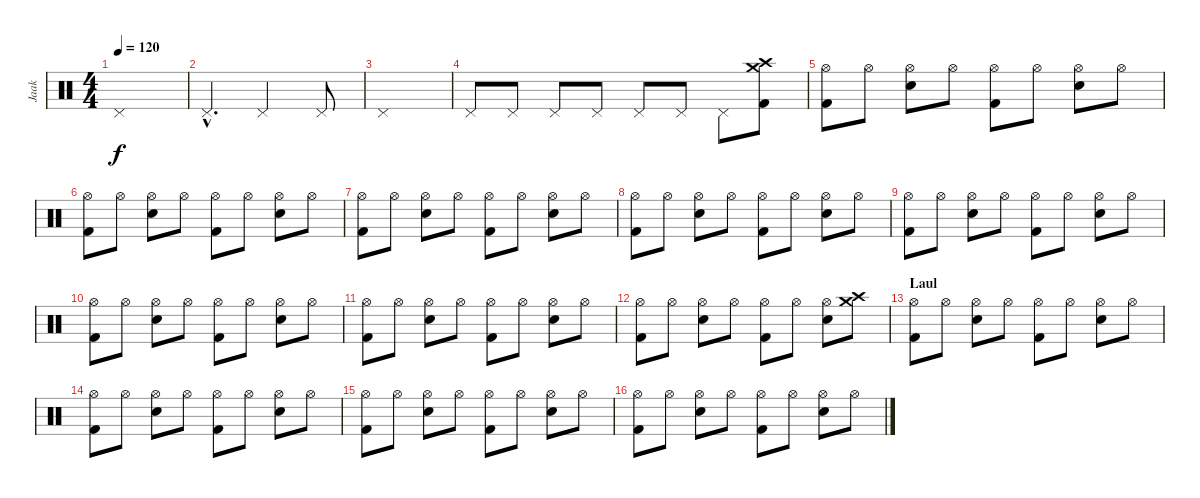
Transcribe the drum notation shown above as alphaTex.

\track ("Jaak" "Jaak") {instrument percussion}
\staff {score}
\articulation defaults
\ts (4 4)
\tempo 120
\clef neutral
\ks c "Pedal Hi-Hat (hit)".1{dy f}
|
"Pedal Hi-Hat (hit)"{hac}.4{d} "Pedal Hi-Hat (hit)".2 "Pedal Hi-Hat (hit)".8 |
"Pedal Hi-Hat (hit)".1 |
"Pedal Hi-Hat (hit)".8 "Pedal Hi-Hat (hit)".8 "Pedal Hi-Hat (hit)".8 "Pedal Hi-Hat (hit)".8 "Pedal Hi-Hat (hit)".8 "Pedal Hi-Hat (hit)".8 "Pedal Hi-Hat (hit)".8 ("Crash high (hit)" "Crash medium (hit)" "Kick (hit) 2").8 |
("Hi-Hat (open)" "Kick (hit) 2").8 "Hi-Hat (open)".8 ("Hi-Hat (open)" "Snare (hit) 2").8 "Hi-Hat (open)".8 ("Hi-Hat (open)" "Kick (hit) 2").8 "Hi-Hat (open)".8 ("Hi-Hat (open)" "Snare (hit) 2").8 "Hi-Hat (open)".8 |
("Hi-Hat (open)" "Kick (hit) 2").8 "Hi-Hat (open)".8 ("Hi-Hat (open)" "Snare (hit) 2").8 "Hi-Hat (open)".8 ("Hi-Hat (open)" "Kick (hit) 2").8 "Hi-Hat (open)".8 ("Hi-Hat (open)" "Snare (hit) 2").8 "Hi-Hat (open)".8 |
("Hi-Hat (open)" "Kick (hit) 2").8 "Hi-Hat (open)".8 ("Hi-Hat (open)" "Snare (hit) 2").8 "Hi-Hat (open)".8 ("Hi-Hat (open)" "Kick (hit) 2").8 "Hi-Hat (open)".8 ("Hi-Hat (open)" "Snare (hit) 2").8 "Hi-Hat (open)".8 |
("Hi-Hat (open)" "Kick (hit) 2").8 "Hi-Hat (open)".8 ("Hi-Hat (open)" "Snare (hit) 2").8 "Hi-Hat (open)".8 ("Hi-Hat (open)" "Kick (hit) 2").8 "Hi-Hat (open)".8 ("Hi-Hat (open)" "Snare (hit) 2").8 "Hi-Hat (open)".8 |
("Hi-Hat (open)" "Kick (hit) 2").8 "Hi-Hat (open)".8 ("Hi-Hat (open)" "Snare (hit) 2").8 "Hi-Hat (open)".8 ("Hi-Hat (open)" "Kick (hit) 2").8 "Hi-Hat (open)".8 ("Hi-Hat (open)" "Snare (hit) 2").8 "Hi-Hat (open)".8 |
("Hi-Hat (open)" "Kick (hit) 2").8 "Hi-Hat (open)".8 ("Hi-Hat (open)" "Snare (hit) 2").8 "Hi-Hat (open)".8 ("Hi-Hat (open)" "Kick (hit) 2").8 "Hi-Hat (open)".8 ("Hi-Hat (open)" "Snare (hit) 2").8 "Hi-Hat (open)".8 |
("Hi-Hat (open)" "Kick (hit) 2").8 "Hi-Hat (open)".8 ("Hi-Hat (open)" "Snare (hit) 2").8 "Hi-Hat (open)".8 ("Hi-Hat (open)" "Kick (hit) 2").8 "Hi-Hat (open)".8 ("Hi-Hat (open)" "Snare (hit) 2").8 "Hi-Hat (open)".8 |
("Hi-Hat (open)" "Kick (hit) 2").8 "Hi-Hat (open)".8 ("Hi-Hat (open)" "Snare (hit) 2").8 "Hi-Hat (open)".8 ("Hi-Hat (open)" "Kick (hit) 2").8 "Hi-Hat (open)".8 ("Hi-Hat (open)" "Snare (hit) 2").8 ("Crash high (hit)" "Crash medium (hit)").8 |
\section ("" "Laul")
("Hi-Hat (open)" "Kick (hit) 2").8 "Hi-Hat (open)".8 ("Hi-Hat (open)" "Snare (hit) 2").8 "Hi-Hat (open)".8 ("Hi-Hat (open)" "Kick (hit) 2").8 "Hi-Hat (open)".8 ("Hi-Hat (open)" "Snare (hit) 2").8 "Hi-Hat (open)".8 |
("Hi-Hat (open)" "Kick (hit) 2").8 "Hi-Hat (open)".8 ("Hi-Hat (open)" "Snare (hit) 2").8 "Hi-Hat (open)".8 ("Hi-Hat (open)" "Kick (hit) 2").8 "Hi-Hat (open)".8 ("Hi-Hat (open)" "Snare (hit) 2").8 "Hi-Hat (open)".8 |
("Hi-Hat (open)" "Kick (hit) 2").8 "Hi-Hat (open)".8 ("Hi-Hat (open)" "Snare (hit) 2").8 "Hi-Hat (open)".8 ("Hi-Hat (open)" "Kick (hit) 2").8 "Hi-Hat (open)".8 ("Hi-Hat (open)" "Snare (hit) 2").8 "Hi-Hat (open)".8 |
("Hi-Hat (open)" "Kick (hit) 2").8 "Hi-Hat (open)".8 ("Hi-Hat (open)" "Snare (hit) 2").8 "Hi-Hat (open)".8 ("Hi-Hat (open)" "Kick (hit) 2").8 "Hi-Hat (open)".8 ("Hi-Hat (open)" "Snare (hit) 2").8 "Hi-Hat (open)".8
